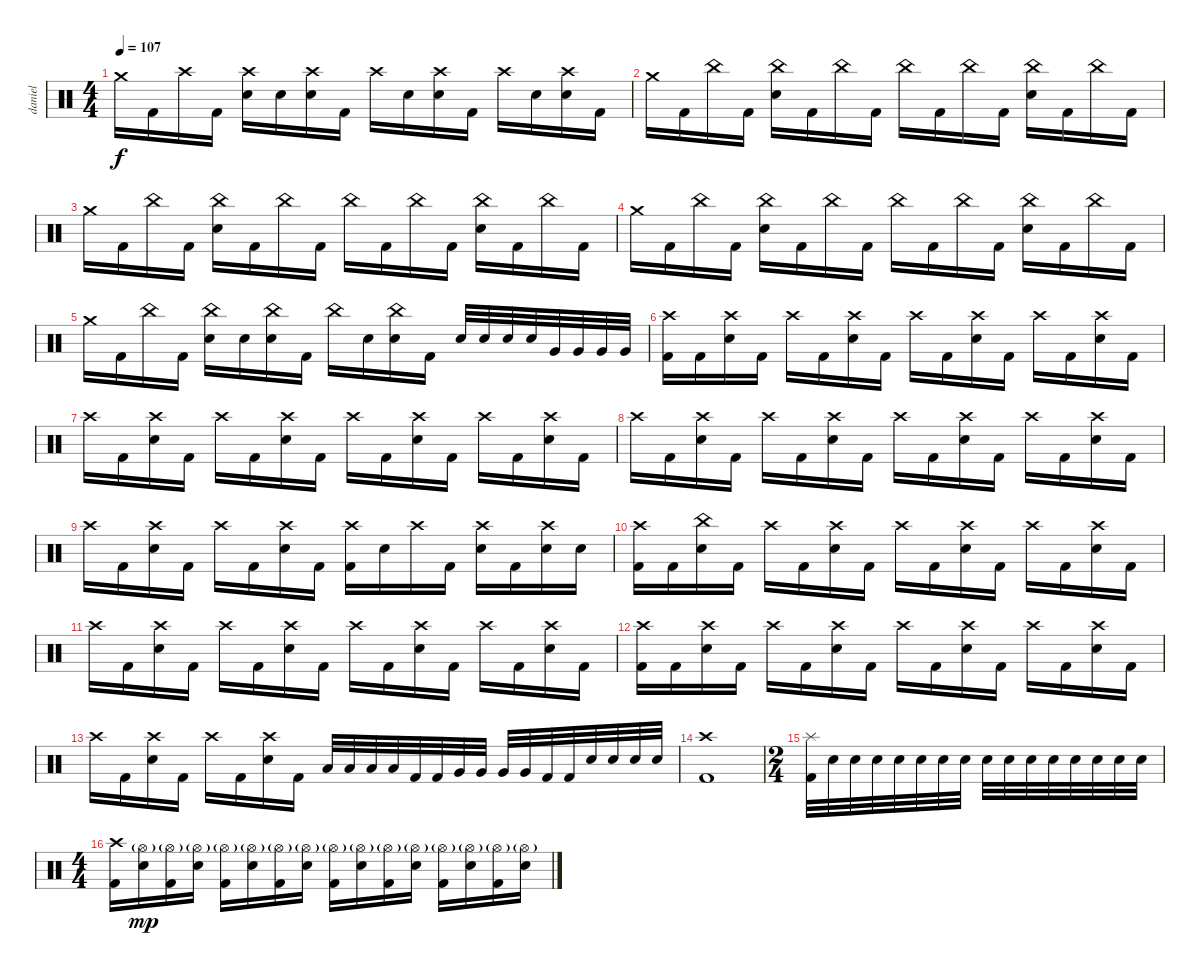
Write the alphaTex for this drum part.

\track ("daniel" "daniel") {instrument percussion}
\staff {score}
\articulation defaults
\ts (4 4)
\tempo 107
\clef neutral
\ks c "Crash medium (hit)".16{dy f} "Kick (hit) 2".16 "Crash high (hit)".16 "Kick (hit) 2".16
("Crash high (hit)" "Electric Snare (hit)").16 "Electric Snare (hit)".16 ("Crash high (hit)" "Electric Snare (hit)").16 "Kick (hit) 2".16 "Crash high (hit)".16 "Electric Snare (hit)".16 ("Crash high (hit)" "Electric Snare (hit)").16 "Kick (hit) 2".16 "Crash high (hit)".16 "Electric Snare (hit)".16 ("Crash high (hit)" "Electric Snare (hit)").16 "Kick (hit) 2".16 |
"Crash medium (hit)".16 "Kick (hit) 2".16 "China (hit)".16 "Kick (hit) 2".16 ("China (hit)" "Electric Snare (hit)").16 "Kick (hit) 2".16 "China (hit)".16 "Kick (hit) 2".16 "China (hit)".16 "Kick (hit) 2".16 "China (hit)".16 "Kick (hit) 2".16 ("China (hit)" "Electric Snare (hit)").16 "Kick (hit) 2".16 "China (hit)".16 "Kick (hit) 2".16 |
"Crash medium (hit)".16 "Kick (hit) 2".16 "China (hit)".16 "Kick (hit) 2".16 ("China (hit)" "Electric Snare (hit)").16 "Kick (hit) 2".16 "China (hit)".16 "Kick (hit) 2".16 "China (hit)".16 "Kick (hit) 2".16 "China (hit)".16 "Kick (hit) 2".16 ("China (hit)" "Electric Snare (hit)").16 "Kick (hit) 2".16 "China (hit)".16 "Kick (hit) 2".16 |
"Crash medium (hit)".16 "Kick (hit) 2".16 "China (hit)".16 "Kick (hit) 2".16 ("China (hit)" "Electric Snare (hit)").16 "Kick (hit) 2".16 "China (hit)".16 "Kick (hit) 2".16 "China (hit)".16 "Kick (hit) 2".16 "China (hit)".16 "Kick (hit) 2".16 ("China (hit)" "Electric Snare (hit)").16 "Kick (hit) 2".16 "China (hit)".16 "Kick (hit) 2".16 |
"Crash medium (hit)".16 "Kick (hit) 2".16 "China (hit)".16 "Kick (hit) 2".16 ("China (hit)" "Electric Snare (hit)").16 "Electric Snare (hit)".16 ("China (hit)" "Electric Snare (hit)").16 "Kick (hit) 2".16 "China (hit)".16 "Electric Snare (hit)".16 ("China (hit)" "Electric Snare (hit)").16 "Kick (hit) 2".16 "Electric Snare (hit)".32 "Electric Snare (hit)".32 "Electric Snare (hit)".32 "Electric Snare (hit)".32 "Very Low Tom (hit)".32 "Very Low Tom (hit)".32 "Very Low Tom (hit)".32 "Very Low Tom (hit)".32 |
("Crash high (hit)" "Kick (hit) 2").16 "Kick (hit) 2".16 ("Crash high (hit)" "Electric Snare (hit)").16 "Kick (hit) 2".16 "Crash high (hit)".16 "Kick (hit) 2".16 ("Crash high (hit)" "Electric Snare (hit)").16 "Kick (hit) 2".16 "Crash high (hit)".16 "Kick (hit) 2".16 ("Crash high (hit)" "Electric Snare (hit)").16 "Kick (hit) 2".16 "Crash high (hit)".16 "Kick (hit) 2".16 ("Crash high (hit)" "Electric Snare (hit)").16 "Kick (hit) 2".16 |
"Crash high (hit)".16 "Kick (hit) 2".16 ("Crash high (hit)" "Electric Snare (hit)").16 "Kick (hit) 2".16 "Crash high (hit)".16 "Kick (hit) 2".16 ("Crash high (hit)" "Electric Snare (hit)").16 "Kick (hit) 2".16 "Crash high (hit)".16 "Kick (hit) 2".16 ("Crash high (hit)" "Electric Snare (hit)").16 "Kick (hit) 2".16 "Crash high (hit)".16 "Kick (hit) 2".16 ("Crash high (hit)" "Electric Snare (hit)").16 "Kick (hit) 2".16 |
"Crash high (hit)".16 "Kick (hit) 2".16 ("Crash high (hit)" "Electric Snare (hit)").16 "Kick (hit) 2".16 "Crash high (hit)".16 "Kick (hit) 2".16 ("Crash high (hit)" "Electric Snare (hit)").16 "Kick (hit) 2".16 "Crash high (hit)".16 "Kick (hit) 2".16 ("Crash high (hit)" "Electric Snare (hit)").16 "Kick (hit) 2".16 "Crash high (hit)".16 "Kick (hit) 2".16 ("Crash high (hit)" "Electric Snare (hit)").16 "Kick (hit) 2".16 |
"Crash high (hit)".16 "Kick (hit) 2".16 ("Crash high (hit)" "Electric Snare (hit)").16 "Kick (hit) 2".16 "Crash high (hit)".16 "Kick (hit) 2".16 ("Crash high (hit)" "Electric Snare (hit)").16 "Kick (hit) 2".16 ("Crash high (hit)" "Kick (hit) 2").16 "Electric Snare (hit)".16 "Crash high (hit)".16 "Kick (hit) 2".16 ("Crash high (hit)" "Electric Snare (hit)").16 "Kick (hit) 2".16 ("Crash high (hit)" "Electric Snare (hit)").16 "Electric Snare (hit)".16 |
("Crash high (hit)" "Kick (hit) 2").16 "Kick (hit) 2".16 ("China (hit)" "Electric Snare (hit)").16 "Kick (hit) 2".16 "Crash high (hit)".16 "Kick (hit) 2".16 ("Crash high (hit)" "Electric Snare (hit)").16 "Kick (hit) 2".16 "Crash high (hit)".16 "Kick (hit) 2".16 ("Crash high (hit)" "Electric Snare (hit)").16 "Kick (hit) 2".16 "Crash high (hit)".16 "Kick (hit) 2".16 ("Crash high (hit)" "Electric Snare (hit)").16 "Kick (hit) 2".16 |
"Crash high (hit)".16 "Kick (hit) 2".16 ("Crash high (hit)" "Electric Snare (hit)").16 "Kick (hit) 2".16 "Crash high (hit)".16 "Kick (hit) 2".16 ("Crash high (hit)" "Electric Snare (hit)").16 "Kick (hit) 2".16 "Crash high (hit)".16 "Kick (hit) 2".16 ("Crash high (hit)" "Electric Snare (hit)").16 "Kick (hit) 2".16 "Crash high (hit)".16 "Kick (hit) 2".16 ("Crash high (hit)" "Electric Snare (hit)").16 "Kick (hit) 2".16 |
("Crash high (hit)" "Kick (hit) 2").16 "Kick (hit) 2".16 ("Crash high (hit)" "Electric Snare (hit)").16 "Kick (hit) 2".16 "Crash high (hit)".16 "Kick (hit) 2".16 ("Crash high (hit)" "Electric Snare (hit)").16 "Kick (hit) 2".16 "Crash high (hit)".16 "Kick (hit) 2".16 ("Crash high (hit)" "Electric Snare (hit)").16 "Kick (hit) 2".16 "Crash high (hit)".16 "Kick (hit) 2".16 ("Crash high (hit)" "Electric Snare (hit)").16 "Kick (hit) 2".16 |
"Crash high (hit)".16 "Kick (hit) 2".16 ("Crash high (hit)" "Electric Snare (hit)").16 "Kick (hit) 2".16 "Crash high (hit)".16 "Kick (hit) 2".16 ("Crash high (hit)" "Electric Snare (hit)").16 "Kick (hit) 2".16 "Low Tom (hit)".32 "Low Tom (hit)".32 "Low Tom (hit)".32 "Low Tom (hit)".32 "Kick (hit) 2".32 "Kick (hit) 2".32 "Very Low Tom (hit)".32 "Very Low Tom (hit)".32 "Very Low Tom (hit)".32 "Very Low Tom (hit)".32 "Kick (hit) 2".32 "Kick (hit) 2".32 "Electric Snare (hit)".32 "Electric Snare (hit)".32 "Electric Snare (hit)".32 "Electric Snare (hit)".32 |
("Crash high (hit)" "Kick (hit) 2").1 |
\ts (2 4)
("Splash (hit)" "Kick (hit) 2").32 "Electric Snare (hit)".32 "Electric Snare (hit)".32 "Electric Snare (hit)".32 "Electric Snare (hit)".32 "Electric Snare (hit)".32 "Electric Snare (hit)".32 "Electric Snare (hit)".32 "Electric Snare (hit)".32 "Electric Snare (hit)".32 "Electric Snare (hit)".32 "Electric Snare (hit)".32 "Electric Snare (hit)".32 "Electric Snare (hit)".32 "Electric Snare (hit)".32 "Electric Snare (hit)".32 |
\ts (4 4)
("Crash high (hit)" "Kick (hit) 2").16 ("Hi-Hat (open)"{g} "Electric Snare (hit)").16{dy mp} ("Hi-Hat (open)"{g} "Kick (hit) 2").16 ("Hi-Hat (open)"{g} "Electric Snare (hit)").16 ("Hi-Hat (open)"{g} "Kick (hit) 2").16 ("Hi-Hat (open)"{g} "Electric Snare (hit)").16 ("Hi-Hat (open)"{g} "Kick (hit) 2").16 ("Hi-Hat (open)"{g} "Electric Snare (hit)").16 ("Hi-Hat (open)"{g} "Kick (hit) 2").16 ("Hi-Hat (open)"{g} "Electric Snare (hit)").16 ("Hi-Hat (open)"{g} "Kick (hit) 2").16 ("Hi-Hat (open)"{g} "Electric Snare (hit)").16 ("Hi-Hat (open)"{g} "Kick (hit) 2").16 ("Hi-Hat (open)"{g} "Electric Snare (hit)").16 ("Hi-Hat (open)"{g} "Kick (hit) 2").16 ("Hi-Hat (open)"{g} "Electric Snare (hit)").16
